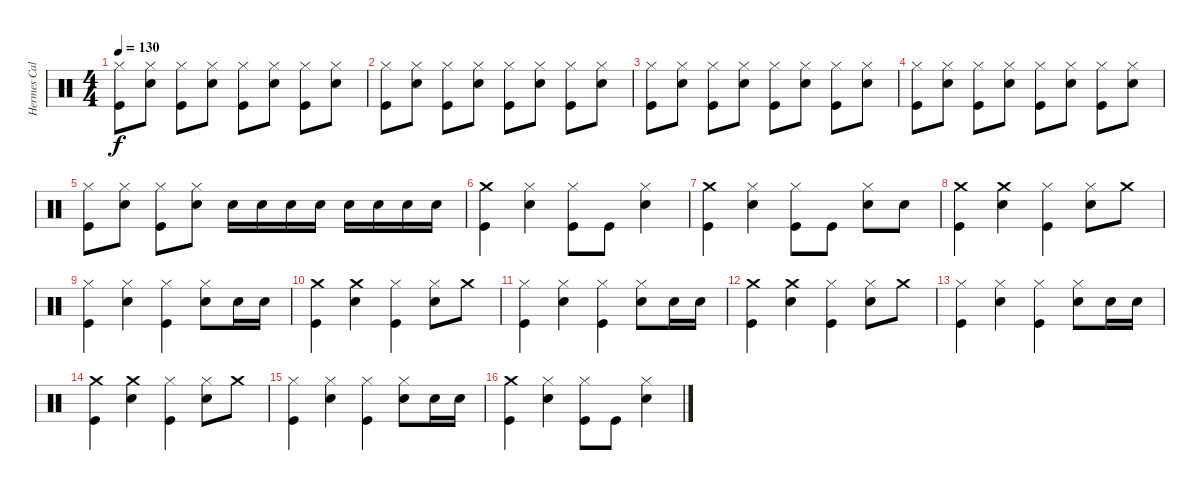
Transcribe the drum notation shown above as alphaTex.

\track ("Hermes Calabria" "Hermes Cal") {instrument percussion}
\staff {score}
\articulation defaults
\ts (4 4)
\tempo 130
\clef neutral
\ks c
("Hi-Hat (closed)" "Kick (hit)").8{dy f} ("Hi-Hat (closed)" "Snare (hit) 2").8 ("Hi-Hat (closed)" "Kick (hit)").8 ("Hi-Hat (closed)" "Snare (hit) 2").8 ("Hi-Hat (closed)" "Kick (hit)").8 ("Hi-Hat (closed)" "Snare (hit) 2").8 ("Hi-Hat (closed)" "Kick (hit)").8 ("Hi-Hat (closed)" "Snare (hit) 2").8 |
("Hi-Hat (closed)" "Kick (hit)").8 ("Hi-Hat (closed)" "Snare (hit) 2").8 ("Hi-Hat (closed)" "Kick (hit)").8 ("Hi-Hat (closed)" "Snare (hit) 2").8 ("Hi-Hat (closed)" "Kick (hit)").8 ("Hi-Hat (closed)" "Snare (hit) 2").8 ("Hi-Hat (closed)" "Kick (hit)").8 ("Hi-Hat (closed)" "Snare (hit) 2").8 |
("Hi-Hat (closed)" "Kick (hit)").8 ("Hi-Hat (closed)" "Snare (hit) 2").8 ("Hi-Hat (closed)" "Kick (hit)").8 ("Hi-Hat (closed)" "Snare (hit) 2").8 ("Hi-Hat (closed)" "Kick (hit)").8 ("Hi-Hat (closed)" "Snare (hit) 2").8 ("Hi-Hat (closed)" "Kick (hit)").8 ("Hi-Hat (closed)" "Snare (hit) 2").8 |
("Hi-Hat (closed)" "Kick (hit)").8 ("Hi-Hat (closed)" "Snare (hit) 2").8 ("Hi-Hat (closed)" "Kick (hit)").8 ("Hi-Hat (closed)" "Snare (hit) 2").8 ("Hi-Hat (closed)" "Kick (hit)").8 ("Hi-Hat (closed)" "Snare (hit) 2").8 ("Hi-Hat (closed)" "Kick (hit)").8 ("Hi-Hat (closed)" "Snare (hit) 2").8 |
("Hi-Hat (closed)" "Kick (hit)").8 ("Hi-Hat (closed)" "Snare (hit) 2").8 ("Hi-Hat (closed)" "Kick (hit)").8 ("Hi-Hat (closed)" "Snare (hit) 2").8 "Snare (hit) 2".16 "Snare (hit) 2".16 "Snare (hit) 2".16 "Snare (hit) 2".16 "Snare (hit) 2".16 "Snare (hit) 2".16 "Snare (hit) 2".16 "Snare (hit) 2".16 |
("Crash medium (hit)" "Kick (hit)").4 ("Hi-Hat (closed)" "Snare (hit) 2").4 ("Hi-Hat (closed)" "Kick (hit)").8 "Kick (hit)".8 ("Hi-Hat (closed)" "Snare (hit) 2").4 |
("Crash medium (hit)" "Kick (hit)").4 ("Hi-Hat (closed)" "Snare (hit) 2").4 ("Hi-Hat (closed)" "Kick (hit)").8 "Kick (hit)".8 ("Hi-Hat (closed)" "Snare (hit) 2").8 "Snare (hit) 2".8 |
("Crash medium (hit)" "Kick (hit)").4 ("Crash medium (hit)" "Snare (hit) 2").4 ("Hi-Hat (closed)" "Kick (hit)").4 ("Hi-Hat (closed)" "Snare (hit) 2").8 "Crash medium (hit)".8 |
("Hi-Hat (closed)" "Kick (hit)").4 ("Hi-Hat (closed)" "Snare (hit) 2").4 ("Hi-Hat (closed)" "Kick (hit)").4 ("Hi-Hat (closed)" "Snare (hit) 2").8 "Snare (hit) 2".16 "Snare (hit) 2".16 |
("Crash medium (hit)" "Kick (hit)").4 ("Crash medium (hit)" "Snare (hit) 2").4 ("Hi-Hat (closed)" "Kick (hit)").4 ("Hi-Hat (closed)" "Snare (hit) 2").8 "Crash medium (hit)".8 |
("Hi-Hat (closed)" "Kick (hit)").4 ("Hi-Hat (closed)" "Snare (hit) 2").4 ("Hi-Hat (closed)" "Kick (hit)").4 ("Hi-Hat (closed)" "Snare (hit) 2").8 "Snare (hit) 2".16 "Snare (hit) 2".16 |
("Crash medium (hit)" "Kick (hit)").4 ("Crash medium (hit)" "Snare (hit) 2").4 ("Hi-Hat (closed)" "Kick (hit)").4 ("Hi-Hat (closed)" "Snare (hit) 2").8 "Crash medium (hit)".8 |
("Hi-Hat (closed)" "Kick (hit)").4 ("Hi-Hat (closed)" "Snare (hit) 2").4 ("Hi-Hat (closed)" "Kick (hit)").4 ("Hi-Hat (closed)" "Snare (hit) 2").8 "Snare (hit) 2".16 "Snare (hit) 2".16 |
("Crash medium (hit)" "Kick (hit)").4 ("Crash medium (hit)" "Snare (hit) 2").4 ("Hi-Hat (closed)" "Kick (hit)").4 ("Hi-Hat (closed)" "Snare (hit) 2").8 "Crash medium (hit)".8 |
("Hi-Hat (closed)" "Kick (hit)").4 ("Hi-Hat (closed)" "Snare (hit) 2").4 ("Hi-Hat (closed)" "Kick (hit)").4 ("Hi-Hat (closed)" "Snare (hit) 2").8 "Snare (hit) 2".16 "Snare (hit) 2".16 |
("Crash medium (hit)" "Kick (hit)").4 ("Hi-Hat (closed)" "Snare (hit) 2").4 ("Hi-Hat (closed)" "Kick (hit)").8 "Kick (hit)".8 ("Hi-Hat (closed)" "Snare (hit) 2").4
